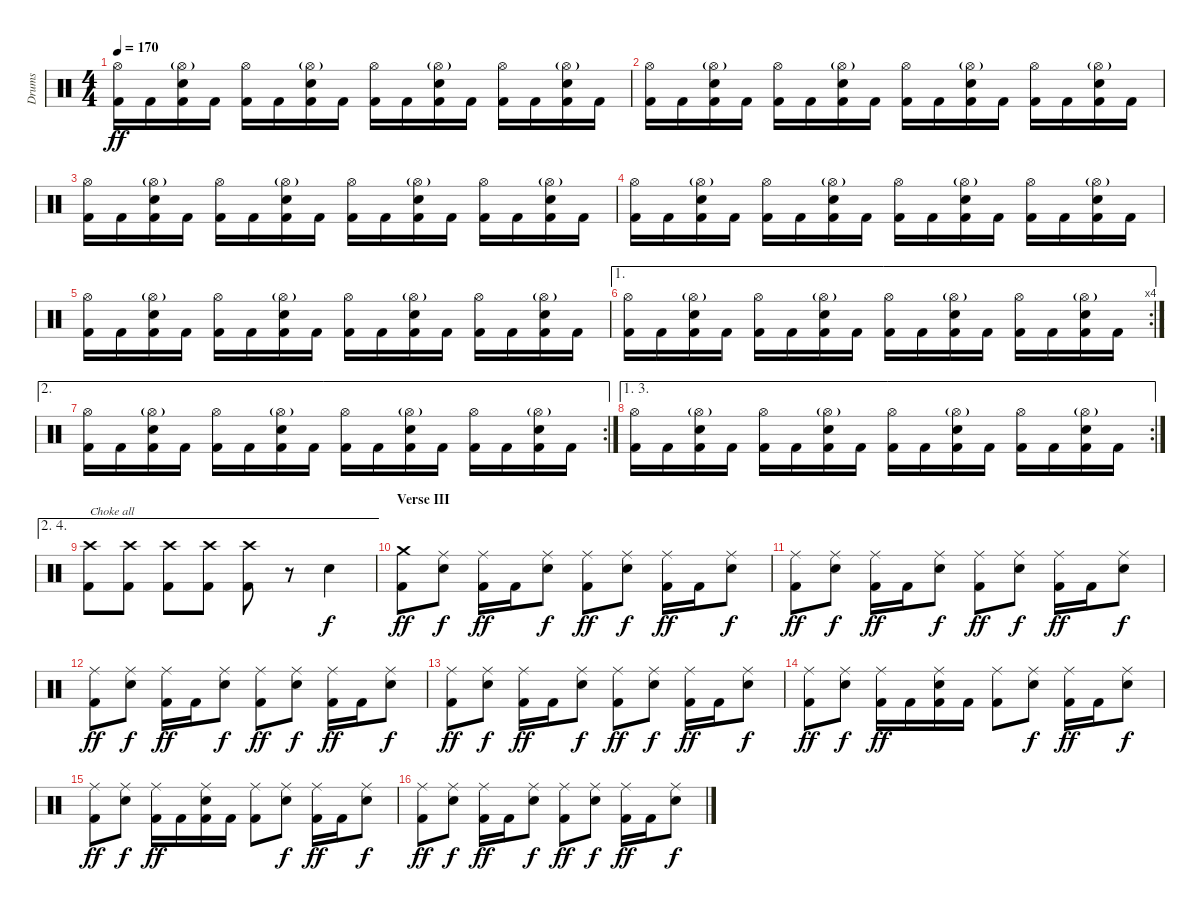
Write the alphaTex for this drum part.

\track ("Drums" "Drums") {instrument percussion}
\staff {score}
\articulation defaults
\ts (4 4)
\tempo 170
\clef neutral
\ks c
("Hi-Hat (open)" "Kick (hit) 2").16{dy ff} "Kick (hit) 2".16 ("Hi-Hat (open)"{g} "Electric Snare (hit)" "Kick (hit) 2").16 "Kick (hit) 2".16 ("Hi-Hat (open)" "Kick (hit) 2").16 "Kick (hit) 2".16 ("Hi-Hat (open)"{g} "Electric Snare (hit)" "Kick (hit) 2").16 "Kick (hit) 2".16 ("Hi-Hat (open)" "Kick (hit) 2").16 "Kick (hit) 2".16 ("Hi-Hat (open)"{g} "Electric Snare (hit)" "Kick (hit) 2").16 "Kick (hit) 2".16 ("Hi-Hat (open)" "Kick (hit) 2").16 "Kick (hit) 2".16 ("Hi-Hat (open)"{g} "Electric Snare (hit)" "Kick (hit) 2").16 "Kick (hit) 2".16 |
("Hi-Hat (open)" "Kick (hit) 2").16 "Kick (hit) 2".16 ("Hi-Hat (open)"{g} "Electric Snare (hit)" "Kick (hit) 2").16 "Kick (hit) 2".16 ("Hi-Hat (open)" "Kick (hit) 2").16 "Kick (hit) 2".16 ("Hi-Hat (open)"{g} "Electric Snare (hit)" "Kick (hit) 2").16 "Kick (hit) 2".16 ("Hi-Hat (open)" "Kick (hit) 2").16 "Kick (hit) 2".16 ("Hi-Hat (open)"{g} "Electric Snare (hit)" "Kick (hit) 2").16 "Kick (hit) 2".16 ("Hi-Hat (open)" "Kick (hit) 2").16 "Kick (hit) 2".16 ("Hi-Hat (open)"{g} "Electric Snare (hit)" "Kick (hit) 2").16 "Kick (hit) 2".16 |
("Hi-Hat (open)" "Kick (hit) 2").16 "Kick (hit) 2".16 ("Hi-Hat (open)"{g} "Electric Snare (hit)" "Kick (hit) 2").16 "Kick (hit) 2".16 ("Hi-Hat (open)" "Kick (hit) 2").16 "Kick (hit) 2".16 ("Hi-Hat (open)"{g} "Electric Snare (hit)" "Kick (hit) 2").16 "Kick (hit) 2".16 ("Hi-Hat (open)" "Kick (hit) 2").16 "Kick (hit) 2".16 ("Hi-Hat (open)"{g} "Electric Snare (hit)" "Kick (hit) 2").16 "Kick (hit) 2".16 ("Hi-Hat (open)" "Kick (hit) 2").16 "Kick (hit) 2".16 ("Hi-Hat (open)"{g} "Electric Snare (hit)" "Kick (hit) 2").16 "Kick (hit) 2".16 |
("Hi-Hat (open)" "Kick (hit) 2").16 "Kick (hit) 2".16 ("Hi-Hat (open)"{g} "Electric Snare (hit)" "Kick (hit) 2").16 "Kick (hit) 2".16 ("Hi-Hat (open)" "Kick (hit) 2").16 "Kick (hit) 2".16 ("Hi-Hat (open)"{g} "Electric Snare (hit)" "Kick (hit) 2").16 "Kick (hit) 2".16 ("Hi-Hat (open)" "Kick (hit) 2").16 "Kick (hit) 2".16 ("Hi-Hat (open)"{g} "Electric Snare (hit)" "Kick (hit) 2").16 "Kick (hit) 2".16 ("Hi-Hat (open)" "Kick (hit) 2").16 "Kick (hit) 2".16 ("Hi-Hat (open)"{g} "Electric Snare (hit)" "Kick (hit) 2").16 "Kick (hit) 2".16 |
("Hi-Hat (open)" "Kick (hit) 2").16 "Kick (hit) 2".16 ("Hi-Hat (open)"{g} "Electric Snare (hit)" "Kick (hit) 2").16 "Kick (hit) 2".16 ("Hi-Hat (open)" "Kick (hit) 2").16 "Kick (hit) 2".16 ("Hi-Hat (open)"{g} "Electric Snare (hit)" "Kick (hit) 2").16 "Kick (hit) 2".16 ("Hi-Hat (open)" "Kick (hit) 2").16 "Kick (hit) 2".16 ("Hi-Hat (open)"{g} "Electric Snare (hit)" "Kick (hit) 2").16 "Kick (hit) 2".16 ("Hi-Hat (open)" "Kick (hit) 2").16 "Kick (hit) 2".16 ("Hi-Hat (open)"{g} "Electric Snare (hit)" "Kick (hit) 2").16 "Kick (hit) 2".16 |
\ae 1
\rc 4
("Hi-Hat (open)" "Kick (hit) 2").16 "Kick (hit) 2".16 ("Hi-Hat (open)"{g} "Electric Snare (hit)" "Kick (hit) 2").16 "Kick (hit) 2".16 ("Hi-Hat (open)" "Kick (hit) 2").16 "Kick (hit) 2".16 ("Hi-Hat (open)"{g} "Electric Snare (hit)" "Kick (hit) 2").16 "Kick (hit) 2".16 ("Hi-Hat (open)" "Kick (hit) 2").16 "Kick (hit) 2".16 ("Hi-Hat (open)"{g} "Electric Snare (hit)" "Kick (hit) 2").16 "Kick (hit) 2".16 ("Hi-Hat (open)" "Kick (hit) 2").16 "Kick (hit) 2".16 ("Hi-Hat (open)"{g} "Electric Snare (hit)" "Kick (hit) 2").16 "Kick (hit) 2".16 |
\ae 2
\rc 2
("Hi-Hat (open)" "Kick (hit) 2").16 "Kick (hit) 2".16 ("Hi-Hat (open)"{g} "Electric Snare (hit)" "Kick (hit) 2").16 "Kick (hit) 2".16 ("Hi-Hat (open)" "Kick (hit) 2").16 "Kick (hit) 2".16 ("Hi-Hat (open)"{g} "Electric Snare (hit)" "Kick (hit) 2").16 "Kick (hit) 2".16 ("Hi-Hat (open)" "Kick (hit) 2").16 "Kick (hit) 2".16 ("Hi-Hat (open)"{g} "Electric Snare (hit)" "Kick (hit) 2").16 "Kick (hit) 2".16 ("Hi-Hat (open)" "Kick (hit) 2").16 "Kick (hit) 2".16 ("Hi-Hat (open)"{g} "Electric Snare (hit)" "Kick (hit) 2").16 "Kick (hit) 2".16 |
\ae (1 3)
\rc 2
("Hi-Hat (open)" "Kick (hit) 2").16 "Kick (hit) 2".16 ("Hi-Hat (open)"{g} "Electric Snare (hit)" "Kick (hit) 2").16 "Kick (hit) 2".16 ("Hi-Hat (open)" "Kick (hit) 2").16 "Kick (hit) 2".16 ("Hi-Hat (open)"{g} "Electric Snare (hit)" "Kick (hit) 2").16 "Kick (hit) 2".16 ("Hi-Hat (open)" "Kick (hit) 2").16 "Kick (hit) 2".16 ("Hi-Hat (open)"{g} "Electric Snare (hit)" "Kick (hit) 2").16 "Kick (hit) 2".16 ("Hi-Hat (open)" "Kick (hit) 2").16 "Kick (hit) 2".16 ("Hi-Hat (open)"{g} "Electric Snare (hit)" "Kick (hit) 2").16 "Kick (hit) 2".16 |
\ae (2 4)
("Crash high (hit)" "Kick (hit) 2").8{txt "Choke all"} ("Crash high (hit)" "Kick (hit) 2").8 ("Crash high (hit)" "Kick (hit) 2").8 ("Crash high (hit)" "Kick (hit) 2").8 ("Crash high (hit)" "Kick (hit) 2").8 r.8{volume 5} "Electric Snare (hit)".4{dy f volume 13} |
\section ("" "Verse III")
("Crash medium (hit)" "Kick (hit) 2").8{dy ff} ("Ride (middle)" "Electric Snare (hit)").8{dy f} ("Ride (middle)" "Kick (hit) 2").16{dy ff} "Kick (hit) 2".16 ("Ride (middle)" "Electric Snare (hit)").8{dy f} ("Ride (middle)" "Kick (hit) 2").8{dy ff} ("Ride (middle)" "Electric Snare (hit)").8{dy f} ("Ride (middle)" "Kick (hit) 2").16{dy ff} "Kick (hit) 2".16 ("Ride (middle)" "Electric Snare (hit)").8{dy f} |
("Ride (middle)" "Kick (hit) 2").8{dy ff} ("Ride (middle)" "Electric Snare (hit)").8{dy f} ("Ride (middle)" "Kick (hit) 2").16{dy ff} "Kick (hit) 2".16 ("Ride (middle)" "Electric Snare (hit)").8{dy f} ("Ride (middle)" "Kick (hit) 2").8{dy ff} ("Ride (middle)" "Electric Snare (hit)").8{dy f} ("Ride (middle)" "Kick (hit) 2").16{dy ff} "Kick (hit) 2".16 ("Ride (middle)" "Electric Snare (hit)").8{dy f} |
("Ride (middle)" "Kick (hit) 2").8{dy ff} ("Ride (middle)" "Electric Snare (hit)").8{dy f} ("Ride (middle)" "Kick (hit) 2").16{dy ff} "Kick (hit) 2".16 ("Ride (middle)" "Electric Snare (hit)").8{dy f} ("Ride (middle)" "Kick (hit) 2").8{dy ff} ("Ride (middle)" "Electric Snare (hit)").8{dy f} ("Ride (middle)" "Kick (hit) 2").16{dy ff} "Kick (hit) 2".16 ("Ride (middle)" "Electric Snare (hit)").8{dy f} |
("Ride (middle)" "Kick (hit) 2").8{dy ff} ("Ride (middle)" "Electric Snare (hit)").8{dy f} ("Ride (middle)" "Kick (hit) 2").16{dy ff} "Kick (hit) 2".16 ("Ride (middle)" "Electric Snare (hit)").8{dy f} ("Ride (middle)" "Kick (hit) 2").8{dy ff} ("Ride (middle)" "Electric Snare (hit)").8{dy f} ("Ride (middle)" "Kick (hit) 2").16{dy ff} "Kick (hit) 2".16 ("Ride (middle)" "Electric Snare (hit)").8{dy f} |
("Ride (middle)" "Kick (hit) 2").8{dy ff} ("Ride (middle)" "Electric Snare (hit)").8{dy f} ("Ride (middle)" "Kick (hit) 2").16{dy ff} "Kick (hit) 2".16 ("Ride (middle)" "Electric Snare (hit)" "Kick (hit) 2").16 "Kick (hit) 2".16 ("Ride (middle)" "Kick (hit) 2").8 ("Ride (middle)" "Electric Snare (hit)").8{dy f} ("Ride (middle)" "Kick (hit) 2").16{dy ff} "Kick (hit) 2".16 ("Ride (middle)" "Electric Snare (hit)").8{dy f} |
("Ride (middle)" "Kick (hit) 2").8{dy ff} ("Ride (middle)" "Electric Snare (hit)").8{dy f} ("Ride (middle)" "Kick (hit) 2").16{dy ff} "Kick (hit) 2".16 ("Ride (middle)" "Electric Snare (hit)" "Kick (hit) 2").16 "Kick (hit) 2".16 ("Ride (middle)" "Kick (hit) 2").8 ("Ride (middle)" "Electric Snare (hit)").8{dy f} ("Ride (middle)" "Kick (hit) 2").16{dy ff} "Kick (hit) 2".16 ("Ride (middle)" "Electric Snare (hit)").8{dy f} |
("Ride (middle)" "Kick (hit) 2").8{dy ff} ("Ride (middle)" "Electric Snare (hit)").8{dy f} ("Ride (middle)" "Kick (hit) 2").16{dy ff} "Kick (hit) 2".16 ("Ride (middle)" "Electric Snare (hit)").8{dy f} ("Ride (middle)" "Kick (hit) 2").8{dy ff} ("Ride (middle)" "Electric Snare (hit)").8{dy f} ("Ride (middle)" "Kick (hit) 2").16{dy ff} "Kick (hit) 2".16 ("Ride (middle)" "Electric Snare (hit)").8{dy f}
